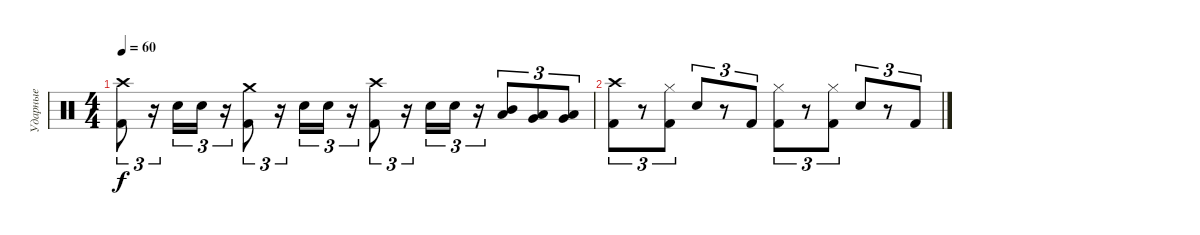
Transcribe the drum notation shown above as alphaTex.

\track ("Ударные" "Ударные") {instrument percussion}
\staff {score}
\articulation defaults
\ts (4 4)
\tempo 60
\clef neutral
\ks c
("Crash high (hit)" "Kick (hit) 2").8{tu (3 2) dy f} r.16{tu (3 2)} "Snare (hit) 2".16{tu (3 2)} "Snare (hit) 2".16{tu (3 2)} r.16{tu (3 2)} ("Crash medium (hit)" "Kick (hit) 2").8{tu (3 2)} r.16{tu (3 2)} "Snare (hit) 2".16{tu (3 2)} "Snare (hit) 2".16{tu (3 2)} r.16{tu (3 2)} ("Crash high (hit)" "Kick (hit) 2").8{tu (3 2)} r.16{tu (3 2)} "Snare (hit) 2".16{tu (3 2)} "Snare (hit) 2".16{tu (3 2)} r.16{tu (3 2)} ("Mid Tom (hit)" "Low Floor Tom (hit)").8{tu (3 2)} ("Low Tom (hit)" "Very Low Tom (hit)").8{tu (3 2)} ("Very Low Tom (hit)" "Low Floor Tom (hit)").8{tu (3 2)} |
("Crash high (hit)" "Kick (hit) 2").8{tu (3 2) volume 0} r.8{tu (3 2)} ("Hi-Hat (closed)" "Kick (hit) 2").8{tu (3 2)} "Snare (hit) 2".8{tu (3 2)} r.8{tu (3 2)} "Kick (hit) 2".8{tu (3 2)} ("Hi-Hat (closed)" "Kick (hit) 2").8{tu (3 2)} r.8{tu (3 2)} ("Hi-Hat (closed)" "Kick (hit) 2").8{tu (3 2)} "Snare (hit) 2".8{tu (3 2)} r.8{tu (3 2)} "Kick (hit) 2".8{tu (3 2)}
